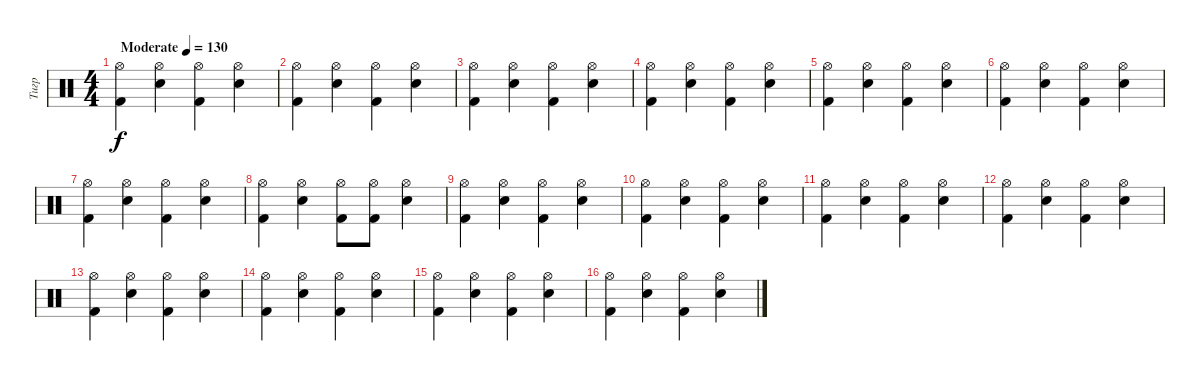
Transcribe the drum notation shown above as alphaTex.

\track ("Тигр" "Тигр") {instrument percussion}
\staff {score}
\articulation defaults
\ts (4 4)
\tempo (130 "Moderate")
\clef neutral
\ks c
("Hi-Hat (open)" "Kick (hit) 2").4{dy f} ("Hi-Hat (open)" "Snare (hit) 2").4 ("Hi-Hat (open)" "Kick (hit) 2").4 ("Hi-Hat (open)" "Snare (hit) 2").4 |
("Hi-Hat (open)" "Kick (hit) 2").4 ("Hi-Hat (open)" "Snare (hit) 2").4 ("Hi-Hat (open)" "Kick (hit) 2").4 ("Hi-Hat (open)" "Snare (hit) 2").4 |
("Hi-Hat (open)" "Kick (hit) 2").4 ("Hi-Hat (open)" "Snare (hit) 2").4 ("Hi-Hat (open)" "Kick (hit) 2").4 ("Hi-Hat (open)" "Snare (hit) 2").4 |
("Hi-Hat (open)" "Kick (hit) 2").4 ("Hi-Hat (open)" "Snare (hit) 2").4 ("Hi-Hat (open)" "Kick (hit) 2").4 ("Hi-Hat (open)" "Snare (hit) 2").4 |
("Hi-Hat (open)" "Kick (hit) 2").4 ("Hi-Hat (open)" "Snare (hit) 2").4 ("Hi-Hat (open)" "Kick (hit) 2").4 ("Hi-Hat (open)" "Snare (hit) 2").4 |
("Hi-Hat (open)" "Kick (hit) 2").4 ("Hi-Hat (open)" "Snare (hit) 2").4 ("Hi-Hat (open)" "Kick (hit) 2").4 ("Hi-Hat (open)" "Snare (hit) 2").4 |
("Hi-Hat (open)" "Kick (hit) 2").4 ("Hi-Hat (open)" "Snare (hit) 2").4 ("Hi-Hat (open)" "Kick (hit) 2").4 ("Hi-Hat (open)" "Snare (hit) 2").4 |
("Hi-Hat (open)" "Kick (hit) 2").4 ("Hi-Hat (open)" "Snare (hit) 2").4 ("Hi-Hat (open)" "Kick (hit) 2").8 ("Hi-Hat (open)" "Kick (hit) 2").8 ("Hi-Hat (open)" "Snare (hit) 2").4 |
("Hi-Hat (open)" "Kick (hit) 2").4 ("Hi-Hat (open)" "Snare (hit) 2").4 ("Hi-Hat (open)" "Kick (hit) 2").4 ("Hi-Hat (open)" "Snare (hit) 2").4 |
("Hi-Hat (open)" "Kick (hit) 2").4 ("Hi-Hat (open)" "Snare (hit) 2").4 ("Hi-Hat (open)" "Kick (hit) 2").4 ("Hi-Hat (open)" "Snare (hit) 2").4 |
("Hi-Hat (open)" "Kick (hit) 2").4 ("Hi-Hat (open)" "Snare (hit) 2").4 ("Hi-Hat (open)" "Kick (hit) 2").4 ("Hi-Hat (open)" "Snare (hit) 2").4 |
("Hi-Hat (open)" "Kick (hit) 2").4 ("Hi-Hat (open)" "Snare (hit) 2").4 ("Hi-Hat (open)" "Kick (hit) 2").4 ("Hi-Hat (open)" "Snare (hit) 2").4 |
("Hi-Hat (open)" "Kick (hit) 2").4 ("Hi-Hat (open)" "Snare (hit) 2").4 ("Hi-Hat (open)" "Kick (hit) 2").4 ("Hi-Hat (open)" "Snare (hit) 2").4 |
("Hi-Hat (open)" "Kick (hit) 2").4 ("Hi-Hat (open)" "Snare (hit) 2").4 ("Hi-Hat (open)" "Kick (hit) 2").4 ("Hi-Hat (open)" "Snare (hit) 2").4 |
("Hi-Hat (open)" "Kick (hit) 2").4 ("Hi-Hat (open)" "Snare (hit) 2").4 ("Hi-Hat (open)" "Kick (hit) 2").4 ("Hi-Hat (open)" "Snare (hit) 2").4 |
("Hi-Hat (open)" "Kick (hit) 2").4 ("Hi-Hat (open)" "Snare (hit) 2").4 ("Hi-Hat (open)" "Kick (hit) 2").4 ("Hi-Hat (open)" "Snare (hit) 2").4
